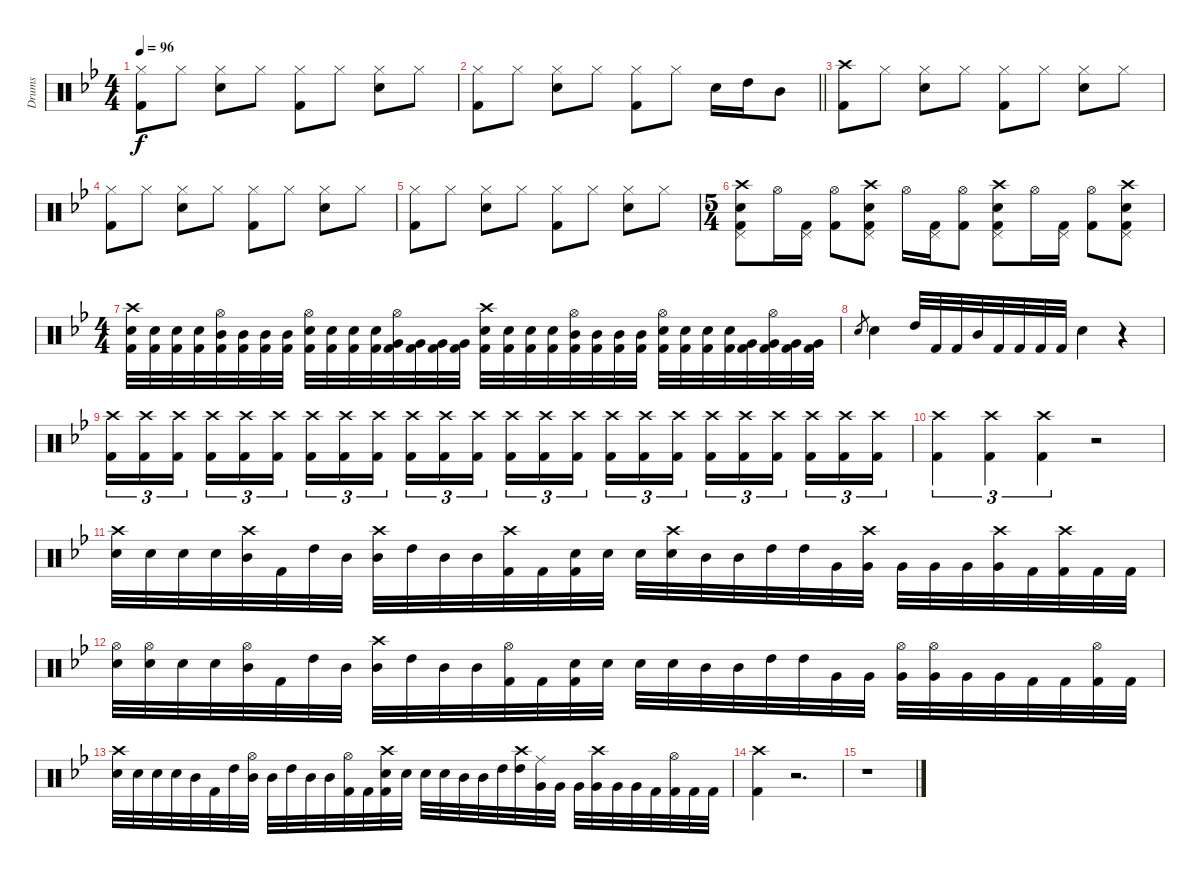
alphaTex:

\track ("Drums" "Drums") {instrument percussion}
\staff {score}
\articulation defaults
\ts (4 4)
\tempo 96
\clef neutral
\ks gminor
("Hi-Hat (closed)" "Kick (hit) 2").8{dy f} "Hi-Hat (closed)".8 ("Hi-Hat (closed)" "Electric Snare (hit)").8 "Hi-Hat (closed)".8 ("Hi-Hat (closed)" "Kick (hit) 2").8 "Hi-Hat (closed)".8 ("Hi-Hat (closed)" "Electric Snare (hit)").8 "Hi-Hat (closed)".8 |
\barLineRight lightlight
("Hi-Hat (closed)" "Kick (hit) 2").8 "Hi-Hat (closed)".8 ("Hi-Hat (closed)" "Electric Snare (hit)").8 "Hi-Hat (closed)".8 ("Hi-Hat (closed)" "Kick (hit) 2").8 "Hi-Hat (closed)".8 "Electric Snare (hit)".16 "High Tom (hit)".16 "Mid Tom (hit)".8 |
("Crash high (hit)" "Kick (hit) 2").8 "Hi-Hat (closed)".8 ("Hi-Hat (closed)" "Electric Snare (hit)").8 "Hi-Hat (closed)".8 ("Hi-Hat (closed)" "Kick (hit) 2").8 "Hi-Hat (closed)".8 ("Hi-Hat (closed)" "Electric Snare (hit)").8 "Hi-Hat (closed)".8 |
("Hi-Hat (closed)" "Kick (hit) 2").8 "Hi-Hat (closed)".8 ("Hi-Hat (closed)" "Electric Snare (hit)").8 "Hi-Hat (closed)".8 ("Hi-Hat (closed)" "Kick (hit) 2").8 "Hi-Hat (closed)".8 ("Hi-Hat (closed)" "Electric Snare (hit)").8 "Hi-Hat (closed)".8 |
("Hi-Hat (closed)" "Kick (hit) 2").8 "Hi-Hat (closed)".8 ("Hi-Hat (closed)" "Electric Snare (hit)").8 "Hi-Hat (closed)".8 ("Hi-Hat (closed)" "Kick (hit) 2").8 "Hi-Hat (closed)".8 ("Hi-Hat (closed)" "Electric Snare (hit)").8 "Hi-Hat (closed)".8 |
\ts (5 4)
("Crash high (hit)" "Electric Snare (hit)" "Pedal Hi-Hat (hit)" "Kick (hit) 2").8 "Hi-Hat (open)".16 ("Pedal Hi-Hat (hit)" "Kick (hit) 2").16 ("Hi-Hat (open)" "Kick (hit) 2").8 ("Crash high (hit)" "Electric Snare (hit)" "Pedal Hi-Hat (hit)" "Kick (hit) 2").8 "Hi-Hat (open)".16 ("Pedal Hi-Hat (hit)" "Kick (hit) 2").16 ("Hi-Hat (open)" "Kick (hit) 2").8 ("Crash high (hit)" "Electric Snare (hit)" "Pedal Hi-Hat (hit)" "Kick (hit) 2").8 "Hi-Hat (open)".16 ("Pedal Hi-Hat (hit)" "Kick (hit) 2").16 ("Hi-Hat (open)" "Kick (hit) 2").8 ("Crash high (hit)" "Electric Snare (hit)" "Pedal Hi-Hat (hit)" "Kick (hit) 2").8 |
\ts (4 4)
("Crash high (hit)" "Electric Snare (hit)" "Kick (hit) 2").32 ("Electric Snare (hit)" "Kick (hit) 2").32 ("Electric Snare (hit)" "Kick (hit) 2").32 ("Electric Snare (hit)" "Kick (hit) 2").32 ("Hi-Hat (open)" "Mid Tom (hit)" "Kick (hit) 2").32 ("Mid Tom (hit)" "Kick (hit) 2").32 ("Mid Tom (hit)" "Kick (hit) 2").32 ("Mid Tom (hit)" "Kick (hit) 2").32 ("Hi-Hat (open)" "Electric Snare (hit)" "Kick (hit) 2").32 ("Electric Snare (hit)" "Kick (hit) 2").32 ("Electric Snare (hit)" "Kick (hit) 2").32 ("Electric Snare (hit)" "Kick (hit) 2").32 ("Hi-Hat (open)" "Very Low Tom (hit)" "Kick (hit) 2").32 ("Very Low Tom (hit)" "Kick (hit) 2").32 ("Very Low Tom (hit)" "Kick (hit) 2").32 ("Very Low Tom (hit)" "Kick (hit) 2").32 ("Crash high (hit)" "Electric Snare (hit)" "Kick (hit) 2").32 ("Electric Snare (hit)" "Kick (hit) 2").32 ("Electric Snare (hit)" "Kick (hit) 2").32 ("Electric Snare (hit)" "Kick (hit) 2").32 ("Hi-Hat (open)" "Mid Tom (hit)" "Kick (hit) 2").32 ("Mid Tom (hit)" "Kick (hit) 2").32 ("Mid Tom (hit)" "Kick (hit) 2").32 ("Mid Tom (hit)" "Kick (hit) 2").32 ("Hi-Hat (open)" "Electric Snare (hit)" "Kick (hit) 2").32 ("Electric Snare (hit)" "Kick (hit) 2").32 ("Electric Snare (hit)" "Kick (hit) 2").32 ("Electric Snare (hit)" "Kick (hit) 2").32 ("Very Low Tom (hit)" "Kick (hit) 2").32 ("Hi-Hat (open)" "Very Low Tom (hit)" "Kick (hit) 2").32 ("Very Low Tom (hit)" "Kick (hit) 2").32 ("Very Low Tom (hit)" "Kick (hit) 2").32 |
"Electric Snare (hit)".8{gr} "Electric Snare (hit)".4 "High Tom (hit)".32 "Kick (hit) 2".32 "Kick (hit) 2".32 "Mid Tom (hit)".32 "Kick (hit) 2".32 "Kick (hit) 2".32 "Kick (hit) 2".32 "Kick (hit) 2".32 "Electric Snare (hit)".4 r.4 |
("Crash high (hit)" "Kick (hit) 2").16{tu (3 2)} ("Crash high (hit)" "Kick (hit) 2").16{tu (3 2)} ("Crash high (hit)" "Kick (hit) 2").16{tu (3 2) beam splitsecondary} ("Crash high (hit)" "Kick (hit) 2").16{tu (3 2)} ("Crash high (hit)" "Kick (hit) 2").16{tu (3 2)} ("Crash high (hit)" "Kick (hit) 2").16{tu (3 2)} ("Crash high (hit)" "Kick (hit) 2").16{tu (3 2)} ("Crash high (hit)" "Kick (hit) 2").16{tu (3 2)} ("Crash high (hit)" "Kick (hit) 2").16{tu (3 2) beam splitsecondary} ("Crash high (hit)" "Kick (hit) 2").16{tu (3 2)} ("Crash high (hit)" "Kick (hit) 2").16{tu (3 2)} ("Crash high (hit)" "Kick (hit) 2").16{tu (3 2)} ("Crash high (hit)" "Kick (hit) 2").16{tu (3 2)} ("Crash high (hit)" "Kick (hit) 2").16{tu (3 2)} ("Crash high (hit)" "Kick (hit) 2").16{tu (3 2) beam splitsecondary} ("Crash high (hit)" "Kick (hit) 2").16{tu (3 2)} ("Crash high (hit)" "Kick (hit) 2").16{tu (3 2)} ("Crash high (hit)" "Kick (hit) 2").16{tu (3 2)} ("Crash high (hit)" "Kick (hit) 2").16{tu (3 2)} ("Crash high (hit)" "Kick (hit) 2").16{tu (3 2)} ("Crash high (hit)" "Kick (hit) 2").16{tu (3 2) beam splitsecondary} ("Crash high (hit)" "Kick (hit) 2").16{tu (3 2)} ("Crash high (hit)" "Kick (hit) 2").16{tu (3 2)} ("Crash high (hit)" "Kick (hit) 2").16{tu (3 2)} |
("Crash high (hit)" "Kick (hit) 2").4{tu (3 2)} ("Crash high (hit)" "Kick (hit) 2").4{tu (3 2)} ("Crash high (hit)" "Kick (hit) 2").4{tu (3 2)} r.2 |
("Crash high (hit)" "Electric Snare (hit)").32 "Electric Snare (hit)".32 "Electric Snare (hit)".32 "Electric Snare (hit)".32 ("Crash high (hit)" "Mid Tom (hit)").32 "Kick (hit) 2".32 "High Tom (hit)".32 "Mid Tom (hit)".32 ("Crash high (hit)" "Mid Tom (hit)").32 "High Tom (hit)".32 "Mid Tom (hit)".32 "Mid Tom (hit)".32 ("Crash high (hit)" "Kick (hit) 2").32 "Kick (hit) 2".32 ("Electric Snare (hit)" "Kick (hit) 2").32 "Electric Snare (hit)".32 "Electric Snare (hit)".32 ("Crash high (hit)" "Electric Snare (hit)").32 "Mid Tom (hit)".32 "Mid Tom (hit)".32 "High Tom (hit)".32 "High Tom (hit)".32 "Very Low Tom (hit)".32 ("Crash high (hit)" "Very Low Tom (hit)").32 "Very Low Tom (hit)".32 "Very Low Tom (hit)".32 "Very Low Tom (hit)".32 ("Crash high (hit)" "Very Low Tom (hit)").32 "Kick (hit) 2".32 ("Crash high (hit)" "Kick (hit) 2").32 "Kick (hit) 2".32 "Kick (hit) 2".32 |
("Hi-Hat (open)" "Electric Snare (hit)").32 ("Hi-Hat (open)" "Electric Snare (hit)").32 "Electric Snare (hit)".32 "Electric Snare (hit)".32 ("Hi-Hat (open)" "Mid Tom (hit)").32 "Kick (hit) 2".32 "High Tom (hit)".32 "Mid Tom (hit)".32 ("Crash high (hit)" "Mid Tom (hit)").32 "High Tom (hit)".32 "Mid Tom (hit)".32 "Mid Tom (hit)".32 ("Hi-Hat (open)" "Kick (hit) 2").32 "Kick (hit) 2".32 ("Electric Snare (hit)" "Kick (hit) 2").32 "Electric Snare (hit)".32 "Electric Snare (hit)".32 "Electric Snare (hit)".32 "Mid Tom (hit)".32 "Mid Tom (hit)".32 "High Tom (hit)".32 "High Tom (hit)".32 "Very Low Tom (hit)".32 "Very Low Tom (hit)".32 ("Hi-Hat (open)" "Very Low Tom (hit)").32 ("Hi-Hat (open)" "Very Low Tom (hit)").32 "Very Low Tom (hit)".32 "Very Low Tom (hit)".32 "Kick (hit) 2".32 "Kick (hit) 2".32 ("Hi-Hat (open)" "Kick (hit) 2").32 "Kick (hit) 2".32 |
("Crash high (hit)" "Electric Snare (hit)").32 "Electric Snare (hit)".32 "Electric Snare (hit)".32 "Electric Snare (hit)".32 "Mid Tom (hit)".32 "Kick (hit) 2".32 "High Tom (hit)".32 ("Hi-Hat (open)" "Mid Tom (hit)").32 "Mid Tom (hit)".32 "High Tom (hit)".32 "Mid Tom (hit)".32 "Mid Tom (hit)".32 ("Hi-Hat (open)" "Kick (hit) 2").32 "Kick (hit) 2".32 ("Crash high (hit)" "Electric Snare (hit)" "Kick (hit) 2").32 "Electric Snare (hit)".32 "Electric Snare (hit)".32 "Electric Snare (hit)".32 "Mid Tom (hit)".32 "Mid Tom (hit)".32 "High Tom (hit)".32 ("Crash high (hit)" "High Tom (hit)").32 ("Ride (middle)" "Very Low Tom (hit)").32 "Very Low Tom (hit)".32 "Very Low Tom (hit)".32 ("Crash high (hit)" "Very Low Tom (hit)").32 "Very Low Tom (hit)".32 "Very Low Tom (hit)".32 "Kick (hit) 2".32 ("Hi-Hat (open)" "Kick (hit) 2").32 "Kick (hit) 2".32 "Kick (hit) 2".32 |
("Crash high (hit)" "Kick (hit) 2").4 r.2{d} |
r.1
